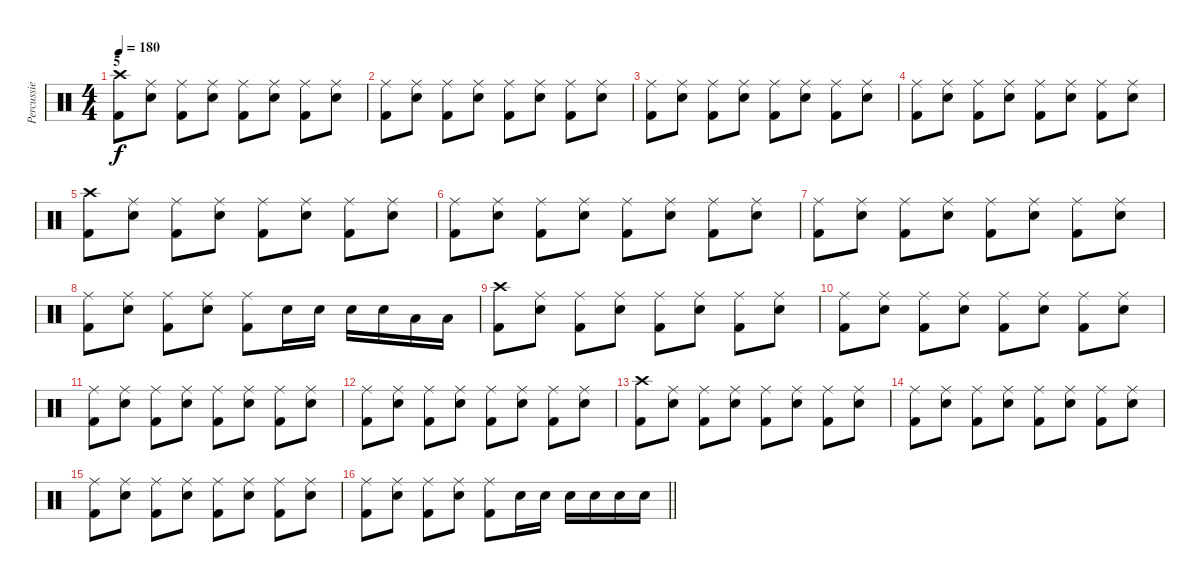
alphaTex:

\track ("Percussie" "Percussie") {instrument percussion}
\staff {score}
\articulation defaults
\ts (4 4)
\section ("" "5")
\tempo 180
\clef neutral
\ks c
("Crash high (hit)" "Kick (hit) 2").8{dy f} ("Ride (middle)" "Snare (hit) 2").8 ("Ride (middle)" "Kick (hit) 2").8 ("Ride (middle)" "Snare (hit) 2").8 ("Ride (middle)" "Kick (hit) 2").8 ("Ride (middle)" "Snare (hit) 2").8 ("Ride (middle)" "Kick (hit) 2").8 ("Ride (middle)" "Snare (hit) 2").8 |
("Ride (middle)" "Kick (hit) 2").8 ("Ride (middle)" "Snare (hit) 2").8 ("Ride (middle)" "Kick (hit) 2").8 ("Ride (middle)" "Snare (hit) 2").8 ("Ride (middle)" "Kick (hit) 2").8 ("Ride (middle)" "Snare (hit) 2").8 ("Ride (middle)" "Kick (hit) 2").8 ("Ride (middle)" "Snare (hit) 2").8 |
("Ride (middle)" "Kick (hit) 2").8 ("Ride (middle)" "Snare (hit) 2").8 ("Ride (middle)" "Kick (hit) 2").8 ("Ride (middle)" "Snare (hit) 2").8 ("Ride (middle)" "Kick (hit) 2").8 ("Ride (middle)" "Snare (hit) 2").8 ("Ride (middle)" "Kick (hit) 2").8 ("Ride (middle)" "Snare (hit) 2").8 |
("Ride (middle)" "Kick (hit) 2").8 ("Ride (middle)" "Snare (hit) 2").8 ("Ride (middle)" "Kick (hit) 2").8 ("Ride (middle)" "Snare (hit) 2").8 ("Ride (middle)" "Kick (hit) 2").8 ("Ride (middle)" "Snare (hit) 2").8 ("Ride (middle)" "Kick (hit) 2").8 ("Ride (middle)" "Snare (hit) 2").8 |
("Crash high (hit)" "Kick (hit) 2").8 ("Ride (middle)" "Snare (hit) 2").8 ("Ride (middle)" "Kick (hit) 2").8 ("Ride (middle)" "Snare (hit) 2").8 ("Ride (middle)" "Kick (hit) 2").8 ("Ride (middle)" "Snare (hit) 2").8 ("Ride (middle)" "Kick (hit) 2").8 ("Ride (middle)" "Snare (hit) 2").8 |
("Ride (middle)" "Kick (hit) 2").8 ("Ride (middle)" "Snare (hit) 2").8 ("Ride (middle)" "Kick (hit) 2").8 ("Ride (middle)" "Snare (hit) 2").8 ("Ride (middle)" "Kick (hit) 2").8 ("Ride (middle)" "Snare (hit) 2").8 ("Ride (middle)" "Kick (hit) 2").8 ("Ride (middle)" "Snare (hit) 2").8 |
("Ride (middle)" "Kick (hit) 2").8 ("Ride (middle)" "Snare (hit) 2").8 ("Ride (middle)" "Kick (hit) 2").8 ("Ride (middle)" "Snare (hit) 2").8 ("Ride (middle)" "Kick (hit) 2").8 ("Ride (middle)" "Snare (hit) 2").8 ("Ride (middle)" "Kick (hit) 2").8 ("Ride (middle)" "Snare (hit) 2").8 |
("Ride (middle)" "Kick (hit) 2").8 ("Ride (middle)" "Snare (hit) 2").8 ("Ride (middle)" "Kick (hit) 2").8 ("Ride (middle)" "Snare (hit) 2").8 ("Ride (middle)" "Kick (hit) 2").8 "Snare (hit) 2".16 "Snare (hit) 2".16 "Snare (hit) 2".16 "Snare (hit) 2".16 "Low Tom (hit)".16 "Low Tom (hit)".16 |
("Crash high (hit)" "Kick (hit) 2").8 ("Ride (middle)" "Snare (hit) 2").8 ("Ride (middle)" "Kick (hit) 2").8 ("Ride (middle)" "Snare (hit) 2").8 ("Ride (middle)" "Kick (hit) 2").8 ("Ride (middle)" "Snare (hit) 2").8 ("Ride (middle)" "Kick (hit) 2").8 ("Ride (middle)" "Snare (hit) 2").8 |
("Ride (middle)" "Kick (hit) 2").8 ("Ride (middle)" "Snare (hit) 2").8 ("Ride (middle)" "Kick (hit) 2").8 ("Ride (middle)" "Snare (hit) 2").8 ("Ride (middle)" "Kick (hit) 2").8 ("Ride (middle)" "Snare (hit) 2").8 ("Ride (middle)" "Kick (hit) 2").8 ("Ride (middle)" "Snare (hit) 2").8 |
("Ride (middle)" "Kick (hit) 2").8 ("Ride (middle)" "Snare (hit) 2").8 ("Ride (middle)" "Kick (hit) 2").8 ("Ride (middle)" "Snare (hit) 2").8 ("Ride (middle)" "Kick (hit) 2").8 ("Ride (middle)" "Snare (hit) 2").8 ("Ride (middle)" "Kick (hit) 2").8 ("Ride (middle)" "Snare (hit) 2").8 |
("Ride (middle)" "Kick (hit) 2").8 ("Ride (middle)" "Snare (hit) 2").8 ("Ride (middle)" "Kick (hit) 2").8 ("Ride (middle)" "Snare (hit) 2").8 ("Ride (middle)" "Kick (hit) 2").8 ("Ride (middle)" "Snare (hit) 2").8 ("Ride (middle)" "Kick (hit) 2").8 ("Ride (middle)" "Snare (hit) 2").8 |
("Crash high (hit)" "Kick (hit) 2").8 ("Ride (middle)" "Snare (hit) 2").8 ("Ride (middle)" "Kick (hit) 2").8 ("Ride (middle)" "Snare (hit) 2").8 ("Ride (middle)" "Kick (hit) 2").8 ("Ride (middle)" "Snare (hit) 2").8 ("Ride (middle)" "Kick (hit) 2").8 ("Ride (middle)" "Snare (hit) 2").8 |
("Ride (middle)" "Kick (hit) 2").8 ("Ride (middle)" "Snare (hit) 2").8 ("Ride (middle)" "Kick (hit) 2").8 ("Ride (middle)" "Snare (hit) 2").8 ("Ride (middle)" "Kick (hit) 2").8 ("Ride (middle)" "Snare (hit) 2").8 ("Ride (middle)" "Kick (hit) 2").8 ("Ride (middle)" "Snare (hit) 2").8 |
("Ride (middle)" "Kick (hit) 2").8 ("Ride (middle)" "Snare (hit) 2").8 ("Ride (middle)" "Kick (hit) 2").8 ("Ride (middle)" "Snare (hit) 2").8 ("Ride (middle)" "Kick (hit) 2").8 ("Ride (middle)" "Snare (hit) 2").8 ("Ride (middle)" "Kick (hit) 2").8 ("Ride (middle)" "Snare (hit) 2").8 |
\barLineRight lightlight
("Ride (middle)" "Kick (hit) 2").8 ("Ride (middle)" "Snare (hit) 2").8 ("Ride (middle)" "Kick (hit) 2").8 ("Ride (middle)" "Snare (hit) 2").8 ("Ride (middle)" "Kick (hit) 2").8 "Snare (hit) 2".16 "Snare (hit) 2".16 "Snare (hit) 2".16 "Snare (hit) 2".16 "Snare (hit) 2".16 "Snare (hit) 2".16
